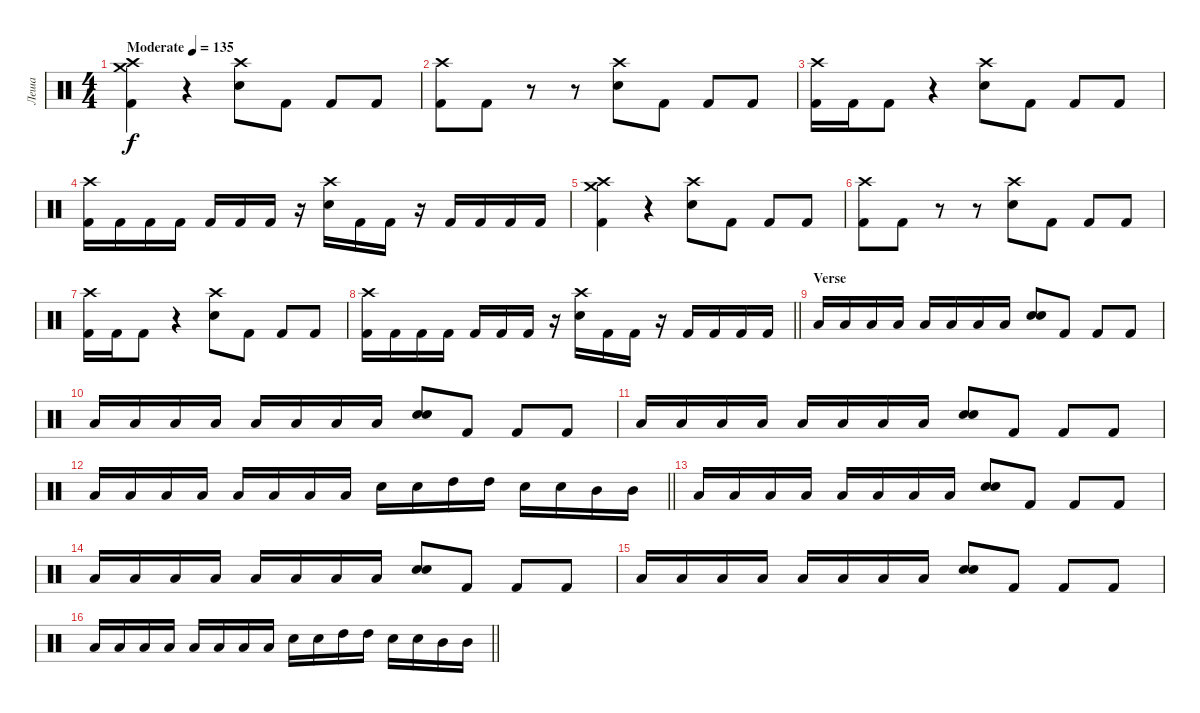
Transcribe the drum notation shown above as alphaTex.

\track ("Леша" "Леша") {instrument percussion}
\staff {score}
\articulation defaults
\ts (4 4)
\tempo (135 "Moderate")
\clef neutral
\ks c
("Crash medium (hit)" "Crash high (hit)" "Kick (hit) 2").4{dy f} r.4 ("Crash high (hit)" "Electric Snare (hit)").8 "Kick (hit) 2".8 "Kick (hit) 2".8 "Kick (hit) 2".8 |
("Crash high (hit)" "Kick (hit) 2").8 "Kick (hit) 2".8 r.8 r.8 ("Crash high (hit)" "Electric Snare (hit)").8 "Kick (hit) 2".8 "Kick (hit) 2".8 "Kick (hit) 2".8 |
("Crash high (hit)" "Kick (hit) 2").16 "Kick (hit) 2".16 "Kick (hit) 2".8 r.4 ("Crash high (hit)" "Electric Snare (hit)").8 "Kick (hit) 2".8 "Kick (hit) 2".8 "Kick (hit) 2".8 |
("Crash high (hit)" "Kick (hit) 2").16 "Kick (hit) 2".16 "Kick (hit) 2".16 "Kick (hit) 2".16 "Kick (hit) 2".16 "Kick (hit) 2".16 "Kick (hit) 2".16 r.16 ("Crash high (hit)" "Electric Snare (hit)").16 "Kick (hit) 2".16 "Kick (hit) 2".16 r.16 "Kick (hit) 2".16 "Kick (hit) 2".16 "Kick (hit) 2".16 "Kick (hit) 2".16 |
("Crash medium (hit)" "Crash high (hit)" "Kick (hit) 2").4 r.4 ("Crash high (hit)" "Electric Snare (hit)").8 "Kick (hit) 2".8 "Kick (hit) 2".8 "Kick (hit) 2".8 |
("Crash high (hit)" "Kick (hit) 2").8 "Kick (hit) 2".8 r.8 r.8 ("Crash high (hit)" "Electric Snare (hit)").8 "Kick (hit) 2".8 "Kick (hit) 2".8 "Kick (hit) 2".8 |
("Crash high (hit)" "Kick (hit) 2").16 "Kick (hit) 2".16 "Kick (hit) 2".8 r.4 ("Crash high (hit)" "Electric Snare (hit)").8 "Kick (hit) 2".8 "Kick (hit) 2".8 "Kick (hit) 2".8 |
\barLineRight lightlight
("Crash high (hit)" "Kick (hit) 2").16 "Kick (hit) 2".16 "Kick (hit) 2".16 "Kick (hit) 2".16 "Kick (hit) 2".16 "Kick (hit) 2".16 "Kick (hit) 2".16 r.16 ("Crash high (hit)" "Electric Snare (hit)").16 "Kick (hit) 2".16 "Kick (hit) 2".16 r.16 "Kick (hit) 2".16 "Kick (hit) 2".16 "Kick (hit) 2".16 "Kick (hit) 2".16 |
\section ("" "Verse")
"Low Tom (hit)".16 "Low Tom (hit)".16 "Low Tom (hit)".16 "Low Tom (hit)".16 "Low Tom (hit)".16 "Low Tom (hit)".16 "Low Tom (hit)".16 "Low Tom (hit)".16 ("Electric Snare (hit)" "Electric Snare (hit)").8 "Kick (hit) 2".8 "Kick (hit) 2".8 "Kick (hit) 2".8 |
"Low Tom (hit)".16 "Low Tom (hit)".16 "Low Tom (hit)".16 "Low Tom (hit)".16 "Low Tom (hit)".16 "Low Tom (hit)".16 "Low Tom (hit)".16 "Low Tom (hit)".16 ("Electric Snare (hit)" "Electric Snare (hit)").8 "Kick (hit) 2".8 "Kick (hit) 2".8 "Kick (hit) 2".8 |
"Low Tom (hit)".16 "Low Tom (hit)".16 "Low Tom (hit)".16 "Low Tom (hit)".16 "Low Tom (hit)".16 "Low Tom (hit)".16 "Low Tom (hit)".16 "Low Tom (hit)".16 ("Electric Snare (hit)" "Electric Snare (hit)").8 "Kick (hit) 2".8 "Kick (hit) 2".8 "Kick (hit) 2".8 |
\barLineRight lightlight "Low Tom (hit)".16 "Low Tom (hit)".16 "Low Tom (hit)".16 "Low Tom (hit)".16 "Low Tom (hit)".16 "Low Tom (hit)".16 "Low Tom (hit)".16 "Low Tom (hit)".16 "Electric Snare (hit)".16 "Electric Snare (hit)".16 "High Tom (hit)".16 "High Tom (hit)".16 "Electric Snare (hit)".16 "Electric Snare (hit)".16 "Mid Tom (hit)".16 "Mid Tom (hit)".16
|
"Low Tom (hit)".16 "Low Tom (hit)".16 "Low Tom (hit)".16 "Low Tom (hit)".16 "Low Tom (hit)".16 "Low Tom (hit)".16 "Low Tom (hit)".16 "Low Tom (hit)".16 ("Electric Snare (hit)" "Electric Snare (hit)").8 "Kick (hit) 2".8 "Kick (hit) 2".8 "Kick (hit) 2".8 |
"Low Tom (hit)".16 "Low Tom (hit)".16 "Low Tom (hit)".16 "Low Tom (hit)".16 "Low Tom (hit)".16 "Low Tom (hit)".16 "Low Tom (hit)".16 "Low Tom (hit)".16 ("Electric Snare (hit)" "Electric Snare (hit)").8 "Kick (hit) 2".8 "Kick (hit) 2".8 "Kick (hit) 2".8 |
"Low Tom (hit)".16 "Low Tom (hit)".16 "Low Tom (hit)".16 "Low Tom (hit)".16 "Low Tom (hit)".16 "Low Tom (hit)".16 "Low Tom (hit)".16 "Low Tom (hit)".16 ("Electric Snare (hit)" "Electric Snare (hit)").8 "Kick (hit) 2".8 "Kick (hit) 2".8 "Kick (hit) 2".8 |
\barLineRight lightlight "Low Tom (hit)".16 "Low Tom (hit)".16 "Low Tom (hit)".16 "Low Tom (hit)".16 "Low Tom (hit)".16 "Low Tom (hit)".16 "Low Tom (hit)".16 "Low Tom (hit)".16 "Electric Snare (hit)".16 "Electric Snare (hit)".16 "High Tom (hit)".16 "High Tom (hit)".16 "Electric Snare (hit)".16 "Electric Snare (hit)".16 "Mid Tom (hit)".16 "Mid Tom (hit)".16
